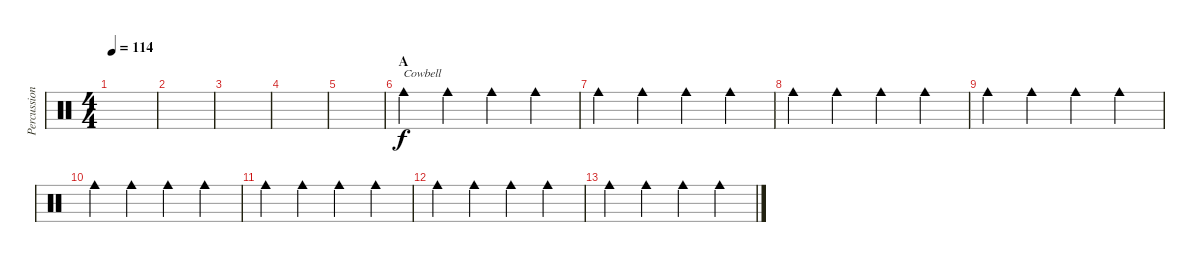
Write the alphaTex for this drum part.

\track ("Percussion" "Percussion") {instrument percussion}
\staff {score}
\articulation defaults
\ts (4 4)
\tempo 114
\clef neutral
\ks c
|
|
|
|
|
\section ("" "A")
"Cowbell medium (hit)".4{txt "Cowbell"} "Cowbell medium (hit)".4 "Cowbell medium (hit)".4 "Cowbell medium (hit)".4 |
"Cowbell medium (hit)".4 "Cowbell medium (hit)".4 "Cowbell medium (hit)".4 "Cowbell medium (hit)".4 |
"Cowbell medium (hit)".4 "Cowbell medium (hit)".4 "Cowbell medium (hit)".4 "Cowbell medium (hit)".4 |
"Cowbell medium (hit)".4 "Cowbell medium (hit)".4 "Cowbell medium (hit)".4 "Cowbell medium (hit)".4 |
"Cowbell medium (hit)".4 "Cowbell medium (hit)".4 "Cowbell medium (hit)".4 "Cowbell medium (hit)".4 |
"Cowbell medium (hit)".4 "Cowbell medium (hit)".4 "Cowbell medium (hit)".4 "Cowbell medium (hit)".4 |
"Cowbell medium (hit)".4 "Cowbell medium (hit)".4 "Cowbell medium (hit)".4 "Cowbell medium (hit)".4 |
"Cowbell medium (hit)".4 "Cowbell medium (hit)".4 "Cowbell medium (hit)".4 "Cowbell medium (hit)".4
